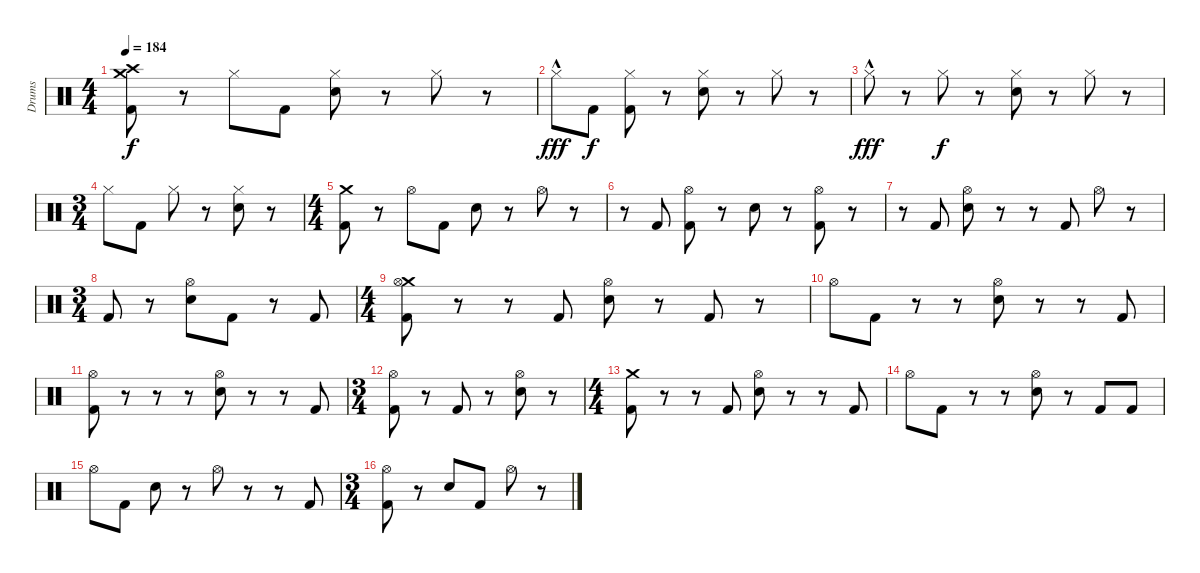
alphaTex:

\track ("Drums" "Drums") {instrument percussion}
\staff {score}
\articulation defaults
\ts (4 4)
\tempo 184
\clef neutral
\ks c
("Crash medium (hit)" "Crash high (hit)" "Kick (hit) 2").8{dy f} r.8 "Hi-Hat (closed)".8 "Kick (hit) 2".8 ("Hi-Hat (closed)" "Snare (hit) 2").8 r.8 "Hi-Hat (closed)".8 r.8 |
"Hi-Hat (closed)"{hac}.8{dy fff} "Kick (hit) 2".8{dy f} ("Hi-Hat (closed)" "Kick (hit) 2").8 r.8 ("Hi-Hat (closed)" "Snare (hit) 2").8 r.8 "Hi-Hat (closed)".8 r.8 |
"Hi-Hat (closed)"{hac}.8{dy fff} r.8 "Hi-Hat (closed)".8{dy f} r.8 ("Hi-Hat (closed)" "Snare (hit) 2").8 r.8 "Hi-Hat (closed)".8 r.8 |
\ts (3 4)
"Hi-Hat (closed)".8 "Kick (hit) 2".8 "Hi-Hat (closed)".8 r.8 ("Hi-Hat (closed)" "Snare (hit) 2").8 r.8 |
\ts (4 4)
("Crash medium (hit)" "Kick (hit) 2").8 r.8 "Hi-Hat (open)".8 "Kick (hit) 2".8 "Snare (hit) 2".8 r.8 "Hi-Hat (open)".8 r.8 |
r.8 "Kick (hit) 2".8 ("Hi-Hat (open)" "Kick (hit) 2").8 r.8 "Snare (hit) 2".8 r.8 ("Hi-Hat (open)" "Kick (hit) 2").8 r.8 |
r.8 "Kick (hit) 2".8 ("Hi-Hat (open)" "Snare (hit) 2").8 r.8 r.8 "Kick (hit) 2".8 "Hi-Hat (open)".8 r.8 |
\ts (3 4)
"Kick (hit) 2".8 r.8 ("Hi-Hat (open)" "Snare (hit) 2").8 "Kick (hit) 2".8 r.8 "Kick (hit) 2".8 |
\ts (4 4)
("Crash medium (hit)" "Hi-Hat (open)" "Kick (hit) 2").8 r.8 r.8 "Kick (hit) 2".8 ("Hi-Hat (open)" "Snare (hit) 2").8 r.8 "Kick (hit) 2".8 r.8 |
"Hi-Hat (open)".8 "Kick (hit) 2".8 r.8 r.8 ("Hi-Hat (open)" "Snare (hit) 2").8 r.8 r.8 "Kick (hit) 2".8 |
("Hi-Hat (open)" "Kick (hit) 2").8 r.8 r.8 r.8 ("Hi-Hat (open)" "Snare (hit) 2").8 r.8 r.8 "Kick (hit) 2".8 |
\ts (3 4)
("Hi-Hat (open)" "Kick (hit) 2").8 r.8 "Kick (hit) 2".8 r.8 ("Hi-Hat (open)" "Snare (hit) 2").8 r.8 |
\ts (4 4)
("Crash medium (hit)" "Kick (hit) 2").8 r.8 r.8 "Kick (hit) 2".8 ("Hi-Hat (open)" "Snare (hit) 2").8 r.8 r.8 "Kick (hit) 2".8 |
"Hi-Hat (open)".8 "Kick (hit) 2".8 r.8 r.8 ("Hi-Hat (open)" "Snare (hit) 2").8 r.8 "Kick (hit) 2".8 "Kick (hit) 2".8 |
"Hi-Hat (open)".8 "Kick (hit) 2".8 "Snare (hit) 2".8 r.8 "Hi-Hat (open)".8 r.8 r.8 "Kick (hit) 2".8 |
\ts (3 4)
("Hi-Hat (open)" "Kick (hit) 2").8 r.8 "Snare (hit) 2".8 "Kick (hit) 2".8 "Hi-Hat (open)".8 r.8
